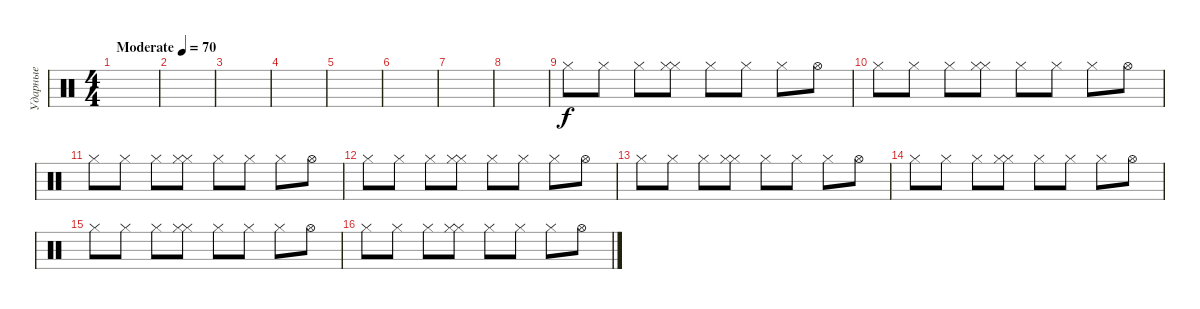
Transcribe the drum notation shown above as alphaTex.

\track ("Ударные" "Ударные") {instrument percussion}
\staff {score}
\articulation defaults
\ts (4 4)
\tempo (70 "Moderate")
\clef neutral
\ks c
|
|
|
|
|
|
|
|
"Hi-Hat (closed)".8 "Hi-Hat (closed)".8 "Hi-Hat (closed)".8 ("Hi-Hat (closed)" "Hi-Hat (closed)").8 "Hi-Hat (closed)".8 "Hi-Hat (closed)".8 "Hi-Hat (closed)".8 "Hi-Hat (open)".8 |
"Hi-Hat (closed)".8 "Hi-Hat (closed)".8 "Hi-Hat (closed)".8 ("Hi-Hat (closed)" "Hi-Hat (closed)").8 "Hi-Hat (closed)".8 "Hi-Hat (closed)".8 "Hi-Hat (closed)".8 "Hi-Hat (open)".8 |
"Hi-Hat (closed)".8 "Hi-Hat (closed)".8 "Hi-Hat (closed)".8 ("Hi-Hat (closed)" "Hi-Hat (closed)").8 "Hi-Hat (closed)".8 "Hi-Hat (closed)".8 "Hi-Hat (closed)".8 "Hi-Hat (open)".8 |
"Hi-Hat (closed)".8 "Hi-Hat (closed)".8 "Hi-Hat (closed)".8 ("Hi-Hat (closed)" "Hi-Hat (closed)").8 "Hi-Hat (closed)".8 "Hi-Hat (closed)".8 "Hi-Hat (closed)".8 "Hi-Hat (open)".8 |
"Hi-Hat (closed)".8 "Hi-Hat (closed)".8 "Hi-Hat (closed)".8 ("Hi-Hat (closed)" "Hi-Hat (closed)").8 "Hi-Hat (closed)".8 "Hi-Hat (closed)".8 "Hi-Hat (closed)".8 "Hi-Hat (open)".8 |
"Hi-Hat (closed)".8 "Hi-Hat (closed)".8 "Hi-Hat (closed)".8 ("Hi-Hat (closed)" "Hi-Hat (closed)").8 "Hi-Hat (closed)".8 "Hi-Hat (closed)".8 "Hi-Hat (closed)".8 "Hi-Hat (open)".8 |
"Hi-Hat (closed)".8 "Hi-Hat (closed)".8 "Hi-Hat (closed)".8 ("Hi-Hat (closed)" "Hi-Hat (closed)").8 "Hi-Hat (closed)".8 "Hi-Hat (closed)".8 "Hi-Hat (closed)".8 "Hi-Hat (open)".8 |
"Hi-Hat (closed)".8 "Hi-Hat (closed)".8 "Hi-Hat (closed)".8 ("Hi-Hat (closed)" "Hi-Hat (closed)").8 "Hi-Hat (closed)".8 "Hi-Hat (closed)".8 "Hi-Hat (closed)".8 "Hi-Hat (open)".8
